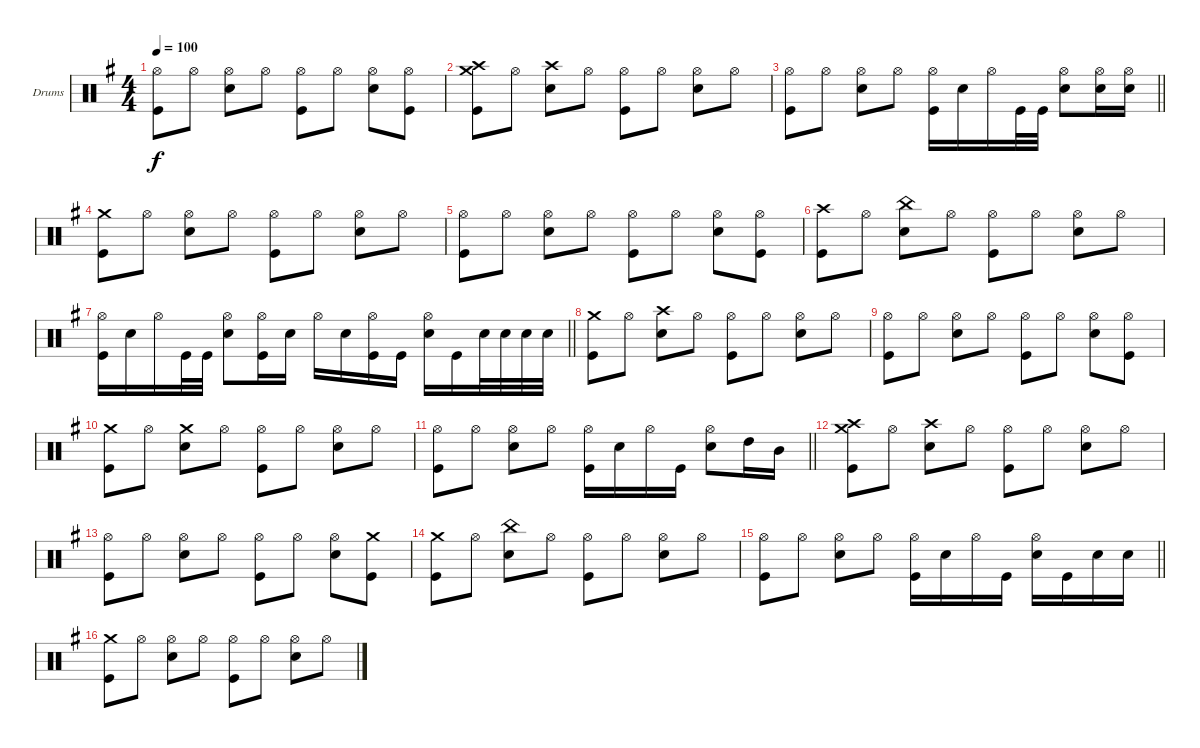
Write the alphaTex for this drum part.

\bracketExtendMode groupsimilarinstruments
\firstSystemTrackNameOrientation horizontal
\otherSystemsTrackNameOrientation horizontal
\track ("drums (Anton Zulganov)" "Drums") {instrument percussion}
\staff {score}
\articulation defaults
\ts (4 4)
\tempo 100
\clef neutral
\ks eminor
("Hi-Hat (open)" "Kick (hit)").8{dy f} "Hi-Hat (open)".8 ("Hi-Hat (open)" "Snare (hit) 2").8 "Hi-Hat (open)".8 ("Hi-Hat (open)" "Kick (hit)").8 "Hi-Hat (open)".8 ("Hi-Hat (open)" "Snare (hit) 2").8 ("Hi-Hat (open)" "Kick (hit)").8 |
("Kick (hit)" "Crash medium (hit)" "Crash high (hit)").8 "Hi-Hat (open)".8 ("Snare (hit) 2" "Crash high (hit)").8 "Hi-Hat (open)".8 ("Hi-Hat (open)" "Kick (hit)").8 "Hi-Hat (open)".8 ("Hi-Hat (open)" "Snare (hit) 2").8 "Hi-Hat (open)".8 |
\barLineRight lightlight
("Kick (hit)" "Hi-Hat (open)").8 "Hi-Hat (open)".8 ("Hi-Hat (open)" "Snare (hit) 2").8 "Hi-Hat (open)".8 ("Hi-Hat (open)" "Kick (hit)").16 "Snare (hit) 2".16 "Hi-Hat (open)".16 "Kick (hit)".32 "Kick (hit)".32 ("Hi-Hat (open)" "Snare (hit) 2").8 ("Hi-Hat (open)" "Snare (hit) 2").16 ("Hi-Hat (open)" "Snare (hit) 2").16 |
("Crash medium (hit)" "Kick (hit)").8 "Hi-Hat (open)".8 ("Hi-Hat (open)" "Snare (hit) 2").8 "Hi-Hat (open)".8 ("Hi-Hat (open)" "Kick (hit)").8 "Hi-Hat (open)".8 ("Hi-Hat (open)" "Snare (hit) 2").8 "Hi-Hat (open)".8 |
("Hi-Hat (open)" "Kick (hit)").8 "Hi-Hat (open)".8 ("Hi-Hat (open)" "Snare (hit) 2").8 "Hi-Hat (open)".8 ("Hi-Hat (open)" "Kick (hit)").8 "Hi-Hat (open)".8 ("Hi-Hat (open)" "Snare (hit) 2").8 ("Hi-Hat (open)" "Kick (hit)").8 |
("Kick (hit)" "Crash high (hit)").8 "Hi-Hat (open)".8 ("Snare (hit) 2" "China (hit)").8 "Hi-Hat (open)".8 ("Hi-Hat (open)" "Kick (hit)").8 "Hi-Hat (open)".8 ("Hi-Hat (open)" "Snare (hit) 2").8 "Hi-Hat (open)".8 |
\barLineRight lightlight
("Kick (hit)" "Hi-Hat (open)").16 "Snare (hit) 2".16 "Hi-Hat (open)".16 "Kick (hit)".32 "Kick (hit)".32 ("Hi-Hat (open)" "Snare (hit) 2").8 ("Hi-Hat (open)" "Kick (hit)").16 "Snare (hit) 2".16 "Hi-Hat (open)".16 "Snare (hit) 2".16 ("Hi-Hat (open)" "Kick (hit)").16 "Kick (hit)".16 ("Hi-Hat (open)" "Snare (hit) 2").16 "Kick (hit)".16 "Snare (hit) 2".32 "Snare (hit) 2".32 "Snare (hit) 2".32 "Snare (hit) 2".32 |
("Crash medium (hit)" "Kick (hit)").8 "Hi-Hat (open)".8 ("Snare (hit) 2" "Crash high (hit)").8 "Hi-Hat (open)".8 ("Hi-Hat (open)" "Kick (hit)").8 "Hi-Hat (open)".8 ("Hi-Hat (open)" "Snare (hit) 2").8 "Hi-Hat (open)".8 |
("Kick (hit)" "Hi-Hat (open)").8 "Hi-Hat (open)".8 ("Hi-Hat (open)" "Snare (hit) 2").8 "Hi-Hat (open)".8 ("Hi-Hat (open)" "Kick (hit)").8 "Hi-Hat (open)".8 ("Hi-Hat (open)" "Snare (hit) 2").8 ("Kick (hit)" "Hi-Hat (open)").8 |
("Kick (hit)" "Crash medium (hit)").8 "Hi-Hat (open)".8 ("Snare (hit) 2" "Crash medium (hit)").8 "Hi-Hat (open)".8 ("Hi-Hat (open)" "Kick (hit)").8 "Hi-Hat (open)".8 ("Hi-Hat (open)" "Snare (hit) 2").8 "Hi-Hat (open)".8 |
\barLineRight lightlight
("Kick (hit)" "Hi-Hat (open)").8 "Hi-Hat (open)".8 ("Hi-Hat (open)" "Snare (hit) 2").8 "Hi-Hat (open)".8 ("Hi-Hat (open)" "Kick (hit)").16 "Snare (hit) 2".16 "Hi-Hat (open)".16 "Kick (hit)".16 ("Snare (hit) 2" "Hi-Hat (open)").8 "High Tom (hit)".16 "Mid Tom (hit)".16 |
("Crash medium (hit)" "Kick (hit)" "Crash high (hit)").8 "Hi-Hat (open)".8 ("Snare (hit) 2" "Crash high (hit)").8 "Hi-Hat (open)".8 ("Hi-Hat (open)" "Kick (hit)").8 "Hi-Hat (open)".8 ("Hi-Hat (open)" "Snare (hit) 2").8 "Hi-Hat (open)".8 |
("Hi-Hat (open)" "Kick (hit)").8 "Hi-Hat (open)".8 ("Hi-Hat (open)" "Snare (hit) 2").8 "Hi-Hat (open)".8 ("Hi-Hat (open)" "Kick (hit)").8 "Hi-Hat (open)".8 ("Hi-Hat (open)" "Snare (hit) 2").8 ("Kick (hit)" "Crash medium (hit)").8 |
("Crash medium (hit)" "Kick (hit)").8 "Hi-Hat (open)".8 ("Snare (hit) 2" "China (hit)").8 "Hi-Hat (open)".8 ("Hi-Hat (open)" "Kick (hit)").8 "Hi-Hat (open)".8 ("Hi-Hat (open)" "Snare (hit) 2").8 "Hi-Hat (open)".8 |
\barLineRight lightlight
("Kick (hit)" "Hi-Hat (open)").8 "Hi-Hat (open)".8 ("Hi-Hat (open)" "Snare (hit) 2").8 "Hi-Hat (open)".8 ("Hi-Hat (open)" "Kick (hit)").16 "Snare (hit) 2".16 "Hi-Hat (open)".16 "Kick (hit)".16 ("Hi-Hat (open)" "Snare (hit) 2").16 "Kick (hit)".16 "Snare (hit) 2".16 "Snare (hit) 2".16 |
("Kick (hit)" "Crash medium (hit)").8 "Hi-Hat (open)".8 ("Hi-Hat (open)" "Snare (hit) 2").8 "Hi-Hat (open)".8 ("Hi-Hat (open)" "Kick (hit)").8 "Hi-Hat (open)".8 ("Hi-Hat (open)" "Snare (hit) 2").8 "Hi-Hat (open)".8
